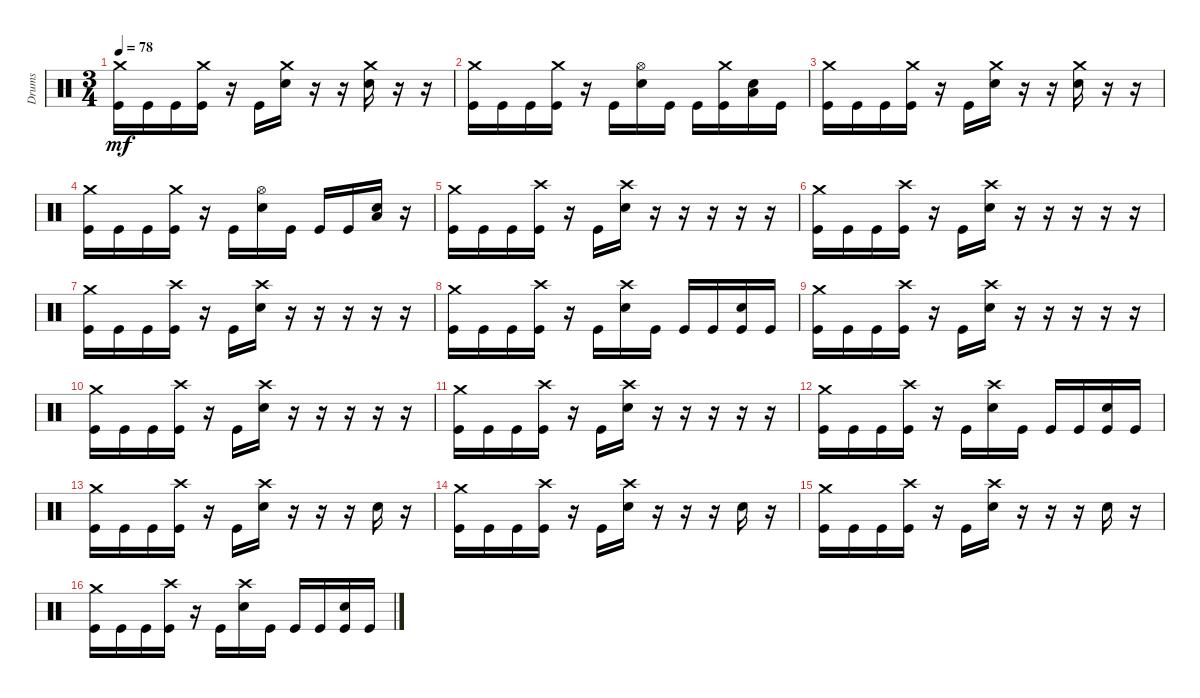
\track ("Drums" "Drums") {instrument percussion}
\staff {score}
\articulation defaults
\ts (3 4)
\tempo 78
\clef neutral
\ks c
("Kick (hit)" "Crash medium (hit)").16{dy mf} "Kick (hit)".16 "Kick (hit)".16 ("Kick (hit)" "Crash medium (hit)").16 r.16 "Kick (hit)".16 ("Snare (hit) 2" "Crash medium (hit)").16 r.16 r.16 ("Snare (hit) 2" "Crash medium (hit)").16 r.16 r.16 |
("Kick (hit)" "Crash medium (hit)").16 "Kick (hit)".16 "Kick (hit)".16 ("Kick (hit)" "Crash medium (hit)").16 r.16 "Kick (hit)".16 ("Snare (hit) 2" "Hi-Hat (open)").16 "Kick (hit)".16 "Kick (hit)".16 ("Kick (hit)" "Crash medium (hit)").16 ("Low Tom (hit)" "Snare (hit) 2").16 "Kick (hit)".16 |
("Kick (hit)" "Crash medium (hit)").16 "Kick (hit)".16 "Kick (hit)".16 ("Kick (hit)" "Crash medium (hit)").16 r.16 "Kick (hit)".16 ("Snare (hit) 2" "Crash medium (hit)").16 r.16 r.16 ("Snare (hit) 2" "Crash medium (hit)").16 r.16 r.16 |
("Kick (hit)" "Crash medium (hit)").16 "Kick (hit)".16 "Kick (hit)".16 ("Kick (hit)" "Crash medium (hit)").16 r.16 "Kick (hit)".16 ("Snare (hit) 2" "Hi-Hat (open)").16 "Kick (hit)".16 "Kick (hit)".16 "Kick (hit)".16 ("Low Tom (hit)" "Snare (hit) 2").16 r.16 |
("Kick (hit)" "Crash medium (hit)").16 "Kick (hit)".16 "Kick (hit)".16 ("Kick (hit)" "Crash high (hit)").16 r.16 "Kick (hit)".16 ("Snare (hit) 2" "Crash high (hit)").16 r.16 r.16 r.16 r.16 r.16 |
("Kick (hit)" "Crash medium (hit)").16 "Kick (hit)".16 "Kick (hit)".16 ("Kick (hit)" "Crash high (hit)").16 r.16 "Kick (hit)".16 ("Snare (hit) 2" "Crash high (hit)").16 r.16 r.16 r.16 r.16 r.16 |
("Kick (hit)" "Crash medium (hit)").16 "Kick (hit)".16 "Kick (hit)".16 ("Kick (hit)" "Crash high (hit)").16 r.16 "Kick (hit)".16 ("Snare (hit) 2" "Crash high (hit)").16 r.16 r.16 r.16 r.16 r.16 |
("Kick (hit)" "Crash medium (hit)").16 "Kick (hit)".16 "Kick (hit)".16 ("Kick (hit)" "Crash high (hit)").16 r.16 "Kick (hit)".16 ("Snare (hit) 2" "Crash high (hit)").16 "Kick (hit)".16 "Kick (hit)".16 "Kick (hit)".16 ("Kick (hit)" "Snare (hit) 2").16 "Kick (hit)".16 |
("Kick (hit)" "Crash medium (hit)").16 "Kick (hit)".16 "Kick (hit)".16 ("Kick (hit)" "Crash high (hit)").16 r.16 "Kick (hit)".16 ("Snare (hit) 2" "Crash high (hit)").16 r.16 r.16 r.16 r.16 r.16 |
("Kick (hit)" "Crash medium (hit)").16 "Kick (hit)".16 "Kick (hit)".16 ("Kick (hit)" "Crash high (hit)").16 r.16 "Kick (hit)".16 ("Snare (hit) 2" "Crash high (hit)").16 r.16 r.16 r.16 r.16 r.16 |
("Kick (hit)" "Crash medium (hit)").16 "Kick (hit)".16 "Kick (hit)".16 ("Kick (hit)" "Crash high (hit)").16 r.16 "Kick (hit)".16 ("Snare (hit) 2" "Crash high (hit)").16 r.16 r.16 r.16 r.16 r.16 |
("Kick (hit)" "Crash medium (hit)").16 "Kick (hit)".16 "Kick (hit)".16 ("Kick (hit)" "Crash high (hit)").16 r.16 "Kick (hit)".16 ("Snare (hit) 2" "Crash high (hit)").16 "Kick (hit)".16 "Kick (hit)".16 "Kick (hit)".16 ("Kick (hit)" "Snare (hit) 2").16 "Kick (hit)".16 |
("Kick (hit)" "Crash medium (hit)").16 "Kick (hit)".16 "Kick (hit)".16 ("Kick (hit)" "Crash high (hit)").16 r.16 "Kick (hit)".16 ("Snare (hit) 2" "Crash high (hit)").16 r.16 r.16 r.16 "Snare (hit) 2".16 r.16 |
("Kick (hit)" "Crash medium (hit)").16 "Kick (hit)".16 "Kick (hit)".16 ("Kick (hit)" "Crash high (hit)").16 r.16 "Kick (hit)".16 ("Snare (hit) 2" "Crash high (hit)").16 r.16 r.16 r.16 "Snare (hit) 2".16 r.16 |
("Kick (hit)" "Crash medium (hit)").16 "Kick (hit)".16 "Kick (hit)".16 ("Kick (hit)" "Crash high (hit)").16 r.16 "Kick (hit)".16 ("Snare (hit) 2" "Crash high (hit)").16 r.16 r.16 r.16 "Snare (hit) 2".16 r.16 |
("Kick (hit)" "Crash medium (hit)").16 "Kick (hit)".16 "Kick (hit)".16 ("Kick (hit)" "Crash high (hit)").16 r.16 "Kick (hit)".16 ("Snare (hit) 2" "Crash high (hit)").16 "Kick (hit)".16 "Kick (hit)".16 "Kick (hit)".16 ("Kick (hit)" "Snare (hit) 2").16 "Kick (hit)".16
